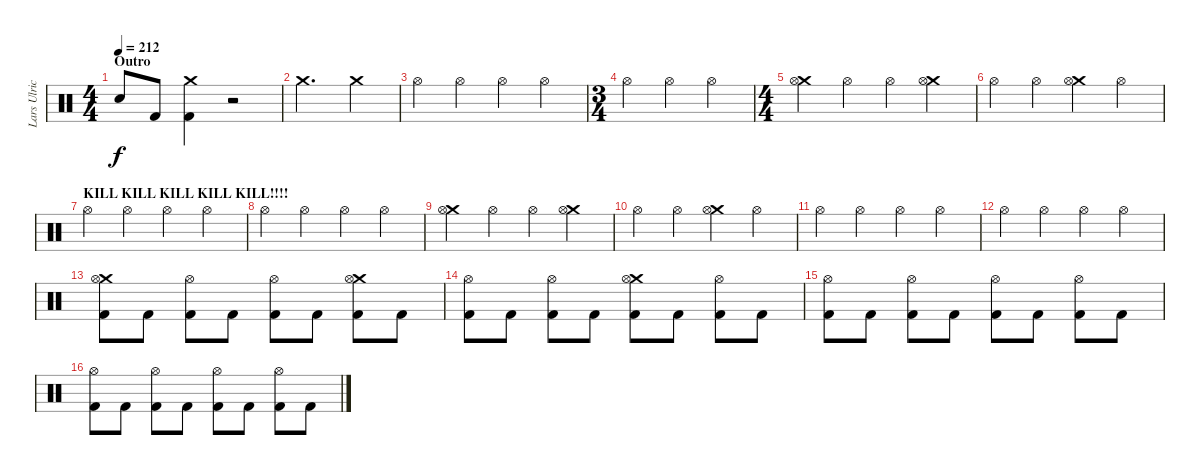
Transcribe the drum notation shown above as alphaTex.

\track ("Lars Ulrich" "Lars Ulric") {instrument percussion}
\staff {score}
\articulation defaults
\ts (4 4)
\section ("" "Outro")
\tempo 212
\clef neutral
\ks c "Snare (hit)"{t}.8{dy f} "Kick (hit) 2".8
("Crash medium (hit)" "Kick (hit) 2").4 r.2 |
"Crash medium (hit)".2{d} "Crash medium (hit)".4 |
"Hi-Hat (open)".4 "Hi-Hat (open)".4 "Hi-Hat (open)".4 "Hi-Hat (open)".4 |
\ts (3 4)
"Hi-Hat (open)".4 "Hi-Hat (open)".4 "Hi-Hat (open)".4 |
\ts (4 4)
("Crash medium (hit)" "Hi-Hat (open)").4 "Hi-Hat (open)".4 "Hi-Hat (open)".4 ("Crash medium (hit)" "Hi-Hat (open)").4 |
"Hi-Hat (open)".4 "Hi-Hat (open)".4 ("Crash medium (hit)" "Hi-Hat (open)").4 "Hi-Hat (open)".4 |
\section ("" "KILL KILL KILL KILL KILL!!!!")
"Hi-Hat (open)".4 "Hi-Hat (open)".4 "Hi-Hat (open)".4 "Hi-Hat (open)".4 |
"Hi-Hat (open)".4 "Hi-Hat (open)".4 "Hi-Hat (open)".4 "Hi-Hat (open)".4 |
("Crash medium (hit)" "Hi-Hat (open)").4 "Hi-Hat (open)".4 "Hi-Hat (open)".4 ("Crash medium (hit)" "Hi-Hat (open)").4 |
"Hi-Hat (open)".4 "Hi-Hat (open)".4 ("Crash medium (hit)" "Hi-Hat (open)").4 "Hi-Hat (open)".4 |
"Hi-Hat (open)".4 "Hi-Hat (open)".4 "Hi-Hat (open)".4 "Hi-Hat (open)".4 |
"Hi-Hat (open)".4 "Hi-Hat (open)".4 "Hi-Hat (open)".4 "Hi-Hat (open)".4 |
("Crash medium (hit)" "Hi-Hat (open)" "Kick (hit) 2").8 "Kick (hit) 2".8 ("Hi-Hat (open)" "Kick (hit) 2").8 "Kick (hit) 2".8 ("Hi-Hat (open)" "Kick (hit) 2").8 "Kick (hit) 2".8 ("Crash medium (hit)" "Hi-Hat (open)" "Kick (hit) 2").8 "Kick (hit) 2".8 |
("Hi-Hat (open)" "Kick (hit) 2").8 "Kick (hit) 2".8 ("Hi-Hat (open)" "Kick (hit) 2").8 "Kick (hit) 2".8 ("Crash medium (hit)" "Hi-Hat (open)" "Kick (hit) 2").8 "Kick (hit) 2".8 ("Hi-Hat (open)" "Kick (hit) 2").8 "Kick (hit) 2".8 |
("Hi-Hat (open)" "Kick (hit) 2").8 "Kick (hit) 2".8 ("Hi-Hat (open)" "Kick (hit) 2").8 "Kick (hit) 2".8 ("Hi-Hat (open)" "Kick (hit) 2").8 "Kick (hit) 2".8 ("Hi-Hat (open)" "Kick (hit) 2").8 "Kick (hit) 2".8 |
("Hi-Hat (open)" "Kick (hit) 2").8 "Kick (hit) 2".8 ("Hi-Hat (open)" "Kick (hit) 2").8 "Kick (hit) 2".8 ("Hi-Hat (open)" "Kick (hit) 2").8 "Kick (hit) 2".8 ("Hi-Hat (open)" "Kick (hit) 2").8 "Kick (hit) 2".8
